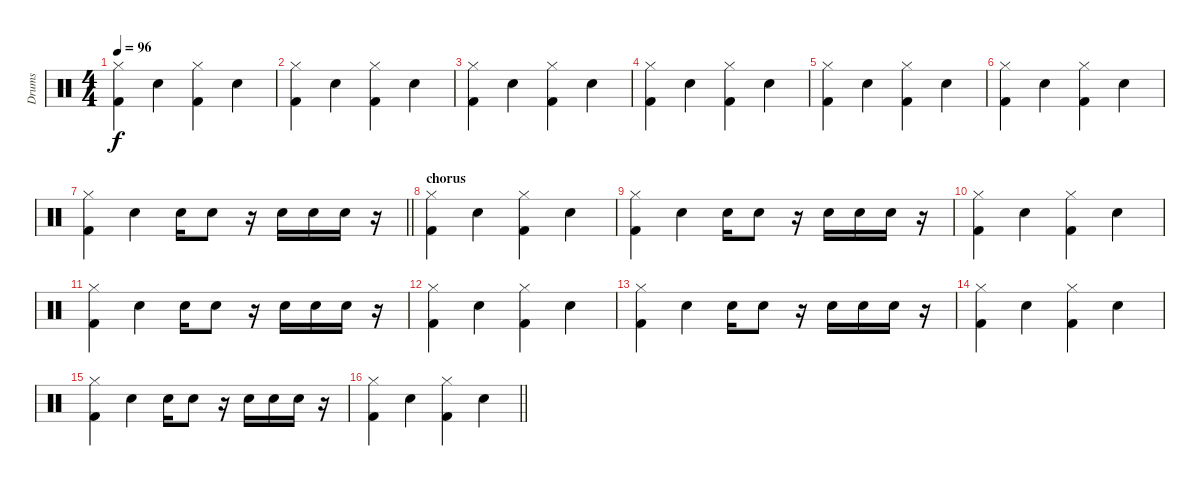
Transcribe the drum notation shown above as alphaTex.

\track ("Drums" "Drums") {instrument percussion}
\staff {score}
\articulation defaults
\ts (4 4)
\tempo 96
\clef neutral
\ks c
("Hi-Hat (closed)" "Kick (hit) 2").4{dy f} "Snare (hit) 2".4 ("Hi-Hat (closed)" "Kick (hit) 2").4 "Snare (hit) 2".4 |
("Hi-Hat (closed)" "Kick (hit) 2").4 "Snare (hit) 2".4 ("Hi-Hat (closed)" "Kick (hit) 2").4 "Snare (hit) 2".4 |
("Hi-Hat (closed)" "Kick (hit) 2").4 "Snare (hit) 2".4 ("Hi-Hat (closed)" "Kick (hit) 2").4 "Snare (hit) 2".4 |
("Hi-Hat (closed)" "Kick (hit) 2").4 "Snare (hit) 2".4 ("Hi-Hat (closed)" "Kick (hit) 2").4 "Snare (hit) 2".4 |
("Hi-Hat (closed)" "Kick (hit) 2").4 "Snare (hit) 2".4 ("Hi-Hat (closed)" "Kick (hit) 2").4 "Snare (hit) 2".4 |
("Hi-Hat (closed)" "Kick (hit) 2").4 "Snare (hit) 2".4 ("Hi-Hat (closed)" "Kick (hit) 2").4 "Snare (hit) 2".4 |
\barLineRight lightlight
("Hi-Hat (closed)" "Kick (hit) 2").4 "Snare (hit) 2".4 "Snare (hit) 2".16 "Snare (hit) 2".8 r.16 "Snare (hit) 2".16 "Snare (hit) 2".16 "Snare (hit) 2".16 r.16 |
\section ("" "chorus")
("Hi-Hat (closed)" "Kick (hit) 2").4 "Snare (hit) 2".4 ("Hi-Hat (closed)" "Kick (hit) 2").4 "Snare (hit) 2".4 |
("Hi-Hat (closed)" "Kick (hit) 2").4 "Snare (hit) 2".4 "Snare (hit) 2".16 "Snare (hit) 2".8 r.16 "Snare (hit) 2".16 "Snare (hit) 2".16 "Snare (hit) 2".16 r.16 |
("Hi-Hat (closed)" "Kick (hit) 2").4 "Snare (hit) 2".4 ("Hi-Hat (closed)" "Kick (hit) 2").4 "Snare (hit) 2".4 |
("Hi-Hat (closed)" "Kick (hit) 2").4 "Snare (hit) 2".4 "Snare (hit) 2".16 "Snare (hit) 2".8 r.16 "Snare (hit) 2".16 "Snare (hit) 2".16 "Snare (hit) 2".16 r.16 |
("Hi-Hat (closed)" "Kick (hit) 2").4 "Snare (hit) 2".4 ("Hi-Hat (closed)" "Kick (hit) 2").4 "Snare (hit) 2".4 |
("Hi-Hat (closed)" "Kick (hit) 2").4 "Snare (hit) 2".4 "Snare (hit) 2".16 "Snare (hit) 2".8 r.16 "Snare (hit) 2".16 "Snare (hit) 2".16 "Snare (hit) 2".16 r.16 |
("Hi-Hat (closed)" "Kick (hit) 2").4 "Snare (hit) 2".4 ("Hi-Hat (closed)" "Kick (hit) 2").4 "Snare (hit) 2".4 |
("Hi-Hat (closed)" "Kick (hit) 2").4 "Snare (hit) 2".4 "Snare (hit) 2".16 "Snare (hit) 2".8 r.16 "Snare (hit) 2".16 "Snare (hit) 2".16 "Snare (hit) 2".16 r.16 |
\barLineRight lightlight
("Hi-Hat (closed)" "Kick (hit) 2").4 "Snare (hit) 2".4 ("Hi-Hat (closed)" "Kick (hit) 2").4 "Snare (hit) 2".4
